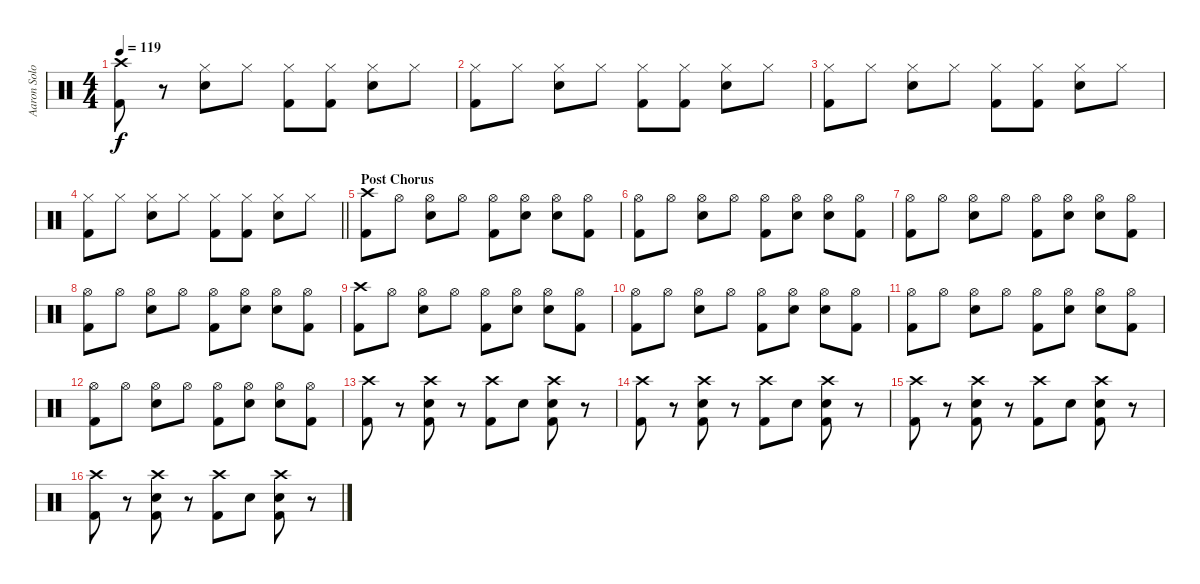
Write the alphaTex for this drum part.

\track ("Aaron Solowoniuk (Drums)" "Aaron Solo") {instrument percussion}
\staff {score}
\articulation defaults
\ts (4 4)
\tempo 119
\clef neutral
\ks c
("Crash high (hit)" "Kick (hit) 2").8{dy f} r.8 ("Hi-Hat (closed)" "Electric Snare (hit)").8 "Hi-Hat (closed)".8 ("Hi-Hat (closed)" "Kick (hit) 2").8 ("Hi-Hat (closed)" "Kick (hit) 2").8 ("Hi-Hat (closed)" "Electric Snare (hit)").8 "Hi-Hat (closed)".8 |
("Hi-Hat (closed)" "Kick (hit) 2").8 "Hi-Hat (closed)".8 ("Hi-Hat (closed)" "Electric Snare (hit)").8 "Hi-Hat (closed)".8 ("Hi-Hat (closed)" "Kick (hit) 2").8 ("Hi-Hat (closed)" "Kick (hit) 2").8 ("Hi-Hat (closed)" "Electric Snare (hit)").8 "Hi-Hat (closed)".8 |
("Hi-Hat (closed)" "Kick (hit) 2").8 "Hi-Hat (closed)".8 ("Hi-Hat (closed)" "Electric Snare (hit)").8 "Hi-Hat (closed)".8 ("Hi-Hat (closed)" "Kick (hit) 2").8 ("Hi-Hat (closed)" "Kick (hit) 2").8 ("Hi-Hat (closed)" "Electric Snare (hit)").8 "Hi-Hat (closed)".8 |
\barLineRight lightlight
("Hi-Hat (closed)" "Kick (hit) 2").8 "Hi-Hat (closed)".8 ("Hi-Hat (closed)" "Electric Snare (hit)").8 "Hi-Hat (closed)".8 ("Hi-Hat (closed)" "Kick (hit) 2").8 ("Hi-Hat (closed)" "Kick (hit) 2").8 ("Hi-Hat (closed)" "Electric Snare (hit)").8 "Hi-Hat (closed)".8 |
\section ("" "Post Chorus")
("Crash high (hit)" "Kick (hit) 2").8 "Hi-Hat (open)".8 ("Hi-Hat (open)" "Electric Snare (hit)").8 "Hi-Hat (open)".8 ("Hi-Hat (open)" "Kick (hit) 2").8 ("Hi-Hat (open)" "Electric Snare (hit)").8 ("Hi-Hat (open)" "Electric Snare (hit)").8 ("Hi-Hat (open)" "Kick (hit) 2").8 |
("Hi-Hat (open)" "Kick (hit) 2").8 "Hi-Hat (open)".8 ("Hi-Hat (open)" "Electric Snare (hit)").8 "Hi-Hat (open)".8 ("Hi-Hat (open)" "Kick (hit) 2").8 ("Hi-Hat (open)" "Electric Snare (hit)").8 ("Hi-Hat (open)" "Electric Snare (hit)").8 ("Hi-Hat (open)" "Kick (hit) 2").8 |
("Hi-Hat (open)" "Kick (hit) 2").8 "Hi-Hat (open)".8 ("Hi-Hat (open)" "Electric Snare (hit)").8 "Hi-Hat (open)".8 ("Hi-Hat (open)" "Kick (hit) 2").8 ("Hi-Hat (open)" "Electric Snare (hit)").8 ("Hi-Hat (open)" "Electric Snare (hit)").8 ("Hi-Hat (open)" "Kick (hit) 2").8 |
("Hi-Hat (open)" "Kick (hit) 2").8 "Hi-Hat (open)".8 ("Hi-Hat (open)" "Electric Snare (hit)").8 "Hi-Hat (open)".8 ("Hi-Hat (open)" "Kick (hit) 2").8 ("Hi-Hat (open)" "Electric Snare (hit)").8 ("Hi-Hat (open)" "Electric Snare (hit)").8 ("Hi-Hat (open)" "Kick (hit) 2").8 |
("Crash high (hit)" "Kick (hit) 2").8 "Hi-Hat (open)".8 ("Hi-Hat (open)" "Electric Snare (hit)").8 "Hi-Hat (open)".8 ("Hi-Hat (open)" "Kick (hit) 2").8 ("Hi-Hat (open)" "Electric Snare (hit)").8 ("Hi-Hat (open)" "Electric Snare (hit)").8 ("Hi-Hat (open)" "Kick (hit) 2").8 |
("Hi-Hat (open)" "Kick (hit) 2").8 "Hi-Hat (open)".8 ("Hi-Hat (open)" "Electric Snare (hit)").8 "Hi-Hat (open)".8 ("Hi-Hat (open)" "Kick (hit) 2").8 ("Hi-Hat (open)" "Electric Snare (hit)").8 ("Hi-Hat (open)" "Electric Snare (hit)").8 ("Hi-Hat (open)" "Kick (hit) 2").8 |
("Hi-Hat (open)" "Kick (hit) 2").8 "Hi-Hat (open)".8 ("Hi-Hat (open)" "Electric Snare (hit)").8 "Hi-Hat (open)".8 ("Hi-Hat (open)" "Kick (hit) 2").8 ("Hi-Hat (open)" "Electric Snare (hit)").8 ("Hi-Hat (open)" "Electric Snare (hit)").8 ("Hi-Hat (open)" "Kick (hit) 2").8 |
("Hi-Hat (open)" "Kick (hit) 2").8 "Hi-Hat (open)".8 ("Hi-Hat (open)" "Electric Snare (hit)").8 "Hi-Hat (open)".8 ("Hi-Hat (open)" "Kick (hit) 2").8 ("Hi-Hat (open)" "Electric Snare (hit)").8 ("Hi-Hat (open)" "Electric Snare (hit)").8 ("Hi-Hat (open)" "Kick (hit) 2").8 |
("Crash high (hit)" "Kick (hit) 2").8 r.8 ("Crash high (hit)" "Electric Snare (hit)" "Kick (hit) 2").8 r.8 ("Crash high (hit)" "Kick (hit) 2").8 "Electric Snare (hit)".8 ("Crash high (hit)" "Electric Snare (hit)" "Kick (hit) 2").8 r.8 |
("Crash high (hit)" "Kick (hit) 2").8 r.8 ("Crash high (hit)" "Electric Snare (hit)" "Kick (hit) 2").8 r.8 ("Crash high (hit)" "Kick (hit) 2").8 "Electric Snare (hit)".8 ("Crash high (hit)" "Electric Snare (hit)" "Kick (hit) 2").8 r.8 |
("Crash high (hit)" "Kick (hit) 2").8 r.8 ("Crash high (hit)" "Electric Snare (hit)" "Kick (hit) 2").8 r.8 ("Crash high (hit)" "Kick (hit) 2").8 "Electric Snare (hit)".8 ("Crash high (hit)" "Electric Snare (hit)" "Kick (hit) 2").8 r.8 |
("Crash high (hit)" "Kick (hit) 2").8 r.8 ("Crash high (hit)" "Electric Snare (hit)" "Kick (hit) 2").8 r.8 ("Crash high (hit)" "Kick (hit) 2").8 "Electric Snare (hit)".8 ("Crash high (hit)" "Electric Snare (hit)" "Kick (hit) 2").8 r.8
